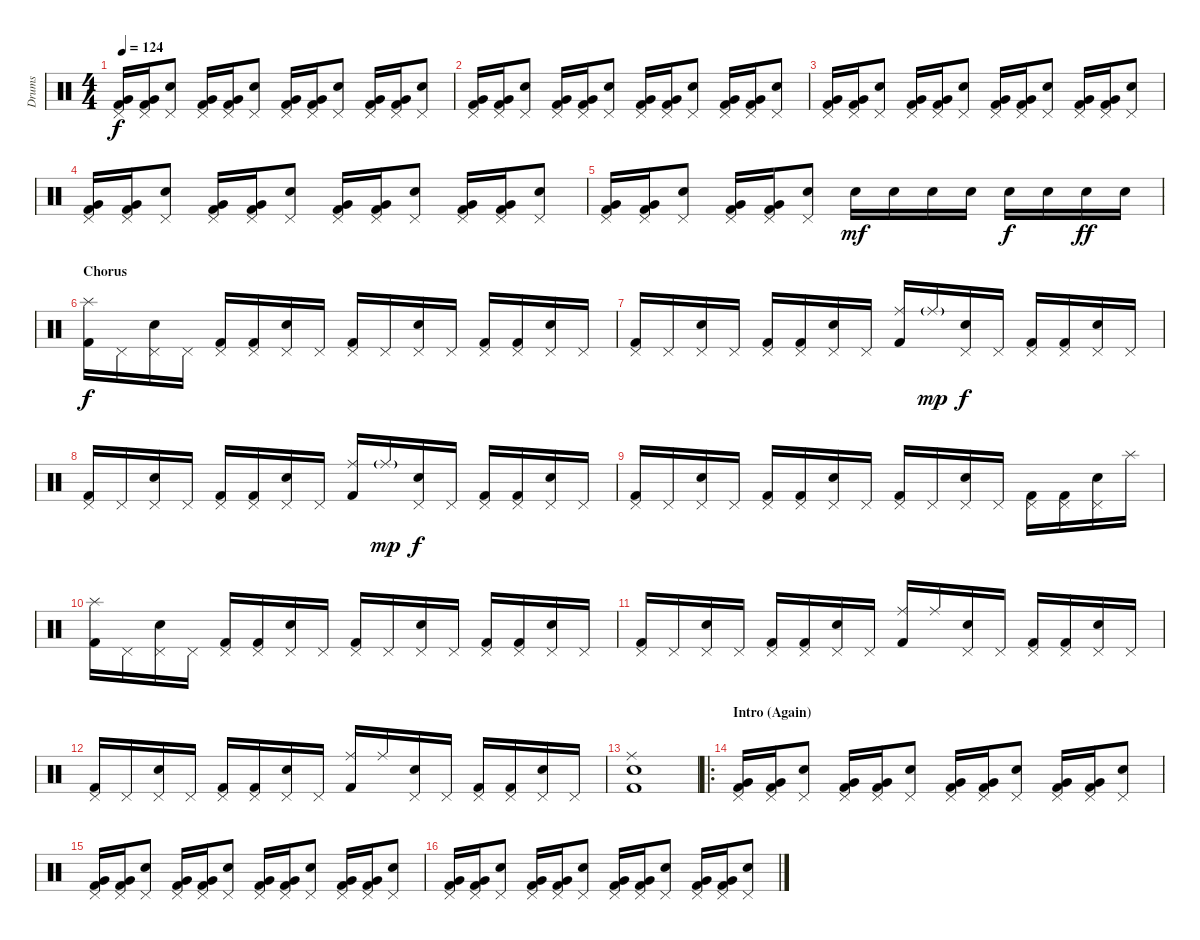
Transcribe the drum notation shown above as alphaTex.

\track ("Drums" "Drums") {instrument percussion}
\staff {score}
\articulation defaults
\ts (4 4)
\tempo 124
\clef neutral
\ks c
("Pedal Hi-Hat (hit)" "Very Low Tom (hit)" "Kick (hit) 2").16{dy f} ("Pedal Hi-Hat (hit)" "Very Low Tom (hit)" "Kick (hit) 2").16 ("Pedal Hi-Hat (hit)" "Electric Snare (hit)").8 ("Pedal Hi-Hat (hit)" "Very Low Tom (hit)" "Kick (hit) 2").16 ("Pedal Hi-Hat (hit)" "Very Low Tom (hit)" "Kick (hit) 2").16 ("Pedal Hi-Hat (hit)" "Electric Snare (hit)").8 ("Pedal Hi-Hat (hit)" "Very Low Tom (hit)" "Kick (hit) 2").16 ("Pedal Hi-Hat (hit)" "Very Low Tom (hit)" "Kick (hit) 2").16 ("Pedal Hi-Hat (hit)" "Electric Snare (hit)").8 ("Pedal Hi-Hat (hit)" "Very Low Tom (hit)" "Kick (hit) 2").16 ("Pedal Hi-Hat (hit)" "Very Low Tom (hit)" "Kick (hit) 2").16 ("Pedal Hi-Hat (hit)" "Electric Snare (hit)").8 |
("Pedal Hi-Hat (hit)" "Very Low Tom (hit)" "Kick (hit) 2").16 ("Pedal Hi-Hat (hit)" "Very Low Tom (hit)" "Kick (hit) 2").16 ("Pedal Hi-Hat (hit)" "Electric Snare (hit)").8 ("Pedal Hi-Hat (hit)" "Very Low Tom (hit)" "Kick (hit) 2").16 ("Pedal Hi-Hat (hit)" "Very Low Tom (hit)" "Kick (hit) 2").16 ("Pedal Hi-Hat (hit)" "Electric Snare (hit)").8 ("Pedal Hi-Hat (hit)" "Very Low Tom (hit)" "Kick (hit) 2").16 ("Pedal Hi-Hat (hit)" "Very Low Tom (hit)" "Kick (hit) 2").16 ("Pedal Hi-Hat (hit)" "Electric Snare (hit)").8 ("Pedal Hi-Hat (hit)" "Very Low Tom (hit)" "Kick (hit) 2").16 ("Pedal Hi-Hat (hit)" "Very Low Tom (hit)" "Kick (hit) 2").16 ("Pedal Hi-Hat (hit)" "Electric Snare (hit)").8 |
("Pedal Hi-Hat (hit)" "Very Low Tom (hit)" "Kick (hit) 2").16 ("Pedal Hi-Hat (hit)" "Very Low Tom (hit)" "Kick (hit) 2").16 ("Pedal Hi-Hat (hit)" "Electric Snare (hit)").8 ("Pedal Hi-Hat (hit)" "Very Low Tom (hit)" "Kick (hit) 2").16 ("Pedal Hi-Hat (hit)" "Very Low Tom (hit)" "Kick (hit) 2").16 ("Pedal Hi-Hat (hit)" "Electric Snare (hit)").8 ("Pedal Hi-Hat (hit)" "Very Low Tom (hit)" "Kick (hit) 2").16 ("Pedal Hi-Hat (hit)" "Very Low Tom (hit)" "Kick (hit) 2").16 ("Pedal Hi-Hat (hit)" "Electric Snare (hit)").8 ("Pedal Hi-Hat (hit)" "Very Low Tom (hit)" "Kick (hit) 2").16 ("Pedal Hi-Hat (hit)" "Very Low Tom (hit)" "Kick (hit) 2").16 ("Pedal Hi-Hat (hit)" "Electric Snare (hit)").8 |
("Pedal Hi-Hat (hit)" "Very Low Tom (hit)" "Kick (hit) 2").16 ("Pedal Hi-Hat (hit)" "Very Low Tom (hit)" "Kick (hit) 2").16 ("Pedal Hi-Hat (hit)" "Electric Snare (hit)").8 ("Pedal Hi-Hat (hit)" "Very Low Tom (hit)" "Kick (hit) 2").16 ("Pedal Hi-Hat (hit)" "Very Low Tom (hit)" "Kick (hit) 2").16 ("Pedal Hi-Hat (hit)" "Electric Snare (hit)").8 ("Pedal Hi-Hat (hit)" "Very Low Tom (hit)" "Kick (hit) 2").16 ("Pedal Hi-Hat (hit)" "Very Low Tom (hit)" "Kick (hit) 2").16 ("Pedal Hi-Hat (hit)" "Electric Snare (hit)").8 ("Pedal Hi-Hat (hit)" "Very Low Tom (hit)" "Kick (hit) 2").16 ("Pedal Hi-Hat (hit)" "Very Low Tom (hit)" "Kick (hit) 2").16 ("Pedal Hi-Hat (hit)" "Electric Snare (hit)").8 |
("Pedal Hi-Hat (hit)" "Very Low Tom (hit)" "Kick (hit) 2").16 ("Pedal Hi-Hat (hit)" "Very Low Tom (hit)" "Kick (hit) 2").16 ("Pedal Hi-Hat (hit)" "Electric Snare (hit)").8 ("Pedal Hi-Hat (hit)" "Very Low Tom (hit)" "Kick (hit) 2").16 ("Pedal Hi-Hat (hit)" "Very Low Tom (hit)" "Kick (hit) 2").16 ("Pedal Hi-Hat (hit)" "Electric Snare (hit)").8 "Electric Snare (hit)".16{dy mf} "Electric Snare (hit)".16 "Electric Snare (hit)".16 "Electric Snare (hit)".16 "Electric Snare (hit)".16{dy f} "Electric Snare (hit)".16 "Electric Snare (hit)".16{dy ff} "Electric Snare (hit)".16 |
\section ("" "Chorus")
("Splash (hit)" "Kick (hit) 2").16{dy f} "Pedal Hi-Hat (hit)".16 ("Pedal Hi-Hat (hit)" "Electric Snare (hit)").16 "Pedal Hi-Hat (hit)".16 ("Pedal Hi-Hat (hit)" "Kick (hit) 2").16 ("Pedal Hi-Hat (hit)" "Kick (hit) 2").16 ("Pedal Hi-Hat (hit)" "Electric Snare (hit)").16 "Pedal Hi-Hat (hit)".16 ("Pedal Hi-Hat (hit)" "Kick (hit) 2").16 "Pedal Hi-Hat (hit)".16 ("Pedal Hi-Hat (hit)" "Electric Snare (hit)").16 "Pedal Hi-Hat (hit)".16 ("Pedal Hi-Hat (hit)" "Kick (hit) 2").16 ("Pedal Hi-Hat (hit)" "Kick (hit) 2").16 ("Pedal Hi-Hat (hit)" "Electric Snare (hit)").16 "Pedal Hi-Hat (hit)".16 |
("Pedal Hi-Hat (hit)" "Kick (hit) 2").16 "Pedal Hi-Hat (hit)".16 ("Pedal Hi-Hat (hit)" "Electric Snare (hit)").16 "Pedal Hi-Hat (hit)".16 ("Pedal Hi-Hat (hit)" "Kick (hit) 2").16 ("Pedal Hi-Hat (hit)" "Kick (hit) 2").16 ("Pedal Hi-Hat (hit)" "Electric Snare (hit)").16 "Pedal Hi-Hat (hit)".16 ("Ride (middle)" "Kick (hit) 2").16 "Ride (middle)"{g}.16{dy mp} ("Pedal Hi-Hat (hit)" "Electric Snare (hit)").16{dy f} "Pedal Hi-Hat (hit)".16 ("Pedal Hi-Hat (hit)" "Kick (hit) 2").16 ("Pedal Hi-Hat (hit)" "Kick (hit) 2").16 ("Pedal Hi-Hat (hit)" "Electric Snare (hit)").16 "Pedal Hi-Hat (hit)".16 |
("Pedal Hi-Hat (hit)" "Kick (hit) 2").16 "Pedal Hi-Hat (hit)".16 ("Pedal Hi-Hat (hit)" "Electric Snare (hit)").16 "Pedal Hi-Hat (hit)".16 ("Pedal Hi-Hat (hit)" "Kick (hit) 2").16 ("Pedal Hi-Hat (hit)" "Kick (hit) 2").16 ("Pedal Hi-Hat (hit)" "Electric Snare (hit)").16 "Pedal Hi-Hat (hit)".16 ("Ride (middle)" "Kick (hit) 2").16 "Ride (middle)"{g}.16{dy mp} ("Pedal Hi-Hat (hit)" "Electric Snare (hit)").16{dy f} "Pedal Hi-Hat (hit)".16 ("Pedal Hi-Hat (hit)" "Kick (hit) 2").16 ("Pedal Hi-Hat (hit)" "Kick (hit) 2").16 ("Pedal Hi-Hat (hit)" "Electric Snare (hit)").16 "Pedal Hi-Hat (hit)".16 |
("Pedal Hi-Hat (hit)" "Kick (hit) 2").16 "Pedal Hi-Hat (hit)".16 ("Pedal Hi-Hat (hit)" "Electric Snare (hit)").16 "Pedal Hi-Hat (hit)".16 ("Pedal Hi-Hat (hit)" "Kick (hit) 2").16 ("Pedal Hi-Hat (hit)" "Kick (hit) 2").16 ("Pedal Hi-Hat (hit)" "Electric Snare (hit)").16 "Pedal Hi-Hat (hit)".16 ("Pedal Hi-Hat (hit)" "Kick (hit) 2").16 "Pedal Hi-Hat (hit)".16 ("Pedal Hi-Hat (hit)" "Electric Snare (hit)").16 "Pedal Hi-Hat (hit)".16 ("Pedal Hi-Hat (hit)" "Kick (hit) 2").16 ("Pedal Hi-Hat (hit)" "Kick (hit) 2").16 ("Pedal Hi-Hat (hit)" "Electric Snare (hit)").16 "Splash (hit)".16 |
("Splash (hit)" "Kick (hit) 2").16 "Pedal Hi-Hat (hit)".16 ("Pedal Hi-Hat (hit)" "Electric Snare (hit)").16 "Pedal Hi-Hat (hit)".16 ("Pedal Hi-Hat (hit)" "Kick (hit) 2").16 ("Pedal Hi-Hat (hit)" "Kick (hit) 2").16 ("Pedal Hi-Hat (hit)" "Electric Snare (hit)").16 "Pedal Hi-Hat (hit)".16 ("Pedal Hi-Hat (hit)" "Kick (hit) 2").16 "Pedal Hi-Hat (hit)".16 ("Pedal Hi-Hat (hit)" "Electric Snare (hit)").16 "Pedal Hi-Hat (hit)".16 ("Pedal Hi-Hat (hit)" "Kick (hit) 2").16 ("Pedal Hi-Hat (hit)" "Kick (hit) 2").16 ("Pedal Hi-Hat (hit)" "Electric Snare (hit)").16 "Pedal Hi-Hat (hit)".16 |
("Pedal Hi-Hat (hit)" "Kick (hit) 2").16 "Pedal Hi-Hat (hit)".16 ("Pedal Hi-Hat (hit)" "Electric Snare (hit)").16 "Pedal Hi-Hat (hit)".16 ("Pedal Hi-Hat (hit)" "Kick (hit) 2").16 ("Pedal Hi-Hat (hit)" "Kick (hit) 2").16 ("Pedal Hi-Hat (hit)" "Electric Snare (hit)").16 "Pedal Hi-Hat (hit)".16 ("Ride (middle)" "Kick (hit) 2").16 "Ride (middle)".16 ("Pedal Hi-Hat (hit)" "Electric Snare (hit)").16 "Pedal Hi-Hat (hit)".16 ("Pedal Hi-Hat (hit)" "Kick (hit) 2").16 ("Pedal Hi-Hat (hit)" "Kick (hit) 2").16 ("Pedal Hi-Hat (hit)" "Electric Snare (hit)").16 "Pedal Hi-Hat (hit)".16 |
("Pedal Hi-Hat (hit)" "Kick (hit) 2").16 "Pedal Hi-Hat (hit)".16 ("Pedal Hi-Hat (hit)" "Electric Snare (hit)").16 "Pedal Hi-Hat (hit)".16 ("Pedal Hi-Hat (hit)" "Kick (hit) 2").16 ("Pedal Hi-Hat (hit)" "Kick (hit) 2").16 ("Pedal Hi-Hat (hit)" "Electric Snare (hit)").16 "Pedal Hi-Hat (hit)".16 ("Ride (middle)" "Kick (hit) 2").16 "Ride (middle)".16 ("Pedal Hi-Hat (hit)" "Electric Snare (hit)").16 "Pedal Hi-Hat (hit)".16 ("Pedal Hi-Hat (hit)" "Kick (hit) 2").16 ("Pedal Hi-Hat (hit)" "Kick (hit) 2").16 ("Pedal Hi-Hat (hit)" "Electric Snare (hit)").16 "Pedal Hi-Hat (hit)".16 |
("Ride (middle)" "Electric Snare (hit)" "Kick (hit) 2").1 |
\ro
\section ("" "Intro (Again)")
("Pedal Hi-Hat (hit)" "Very Low Tom (hit)" "Kick (hit) 2").16 ("Pedal Hi-Hat (hit)" "Very Low Tom (hit)" "Kick (hit) 2").16 ("Pedal Hi-Hat (hit)" "Electric Snare (hit)").8 ("Pedal Hi-Hat (hit)" "Very Low Tom (hit)" "Kick (hit) 2").16 ("Pedal Hi-Hat (hit)" "Very Low Tom (hit)" "Kick (hit) 2").16 ("Pedal Hi-Hat (hit)" "Electric Snare (hit)").8 ("Pedal Hi-Hat (hit)" "Very Low Tom (hit)" "Kick (hit) 2").16 ("Pedal Hi-Hat (hit)" "Very Low Tom (hit)" "Kick (hit) 2").16 ("Pedal Hi-Hat (hit)" "Electric Snare (hit)").8 ("Pedal Hi-Hat (hit)" "Very Low Tom (hit)" "Kick (hit) 2").16 ("Pedal Hi-Hat (hit)" "Very Low Tom (hit)" "Kick (hit) 2").16 ("Pedal Hi-Hat (hit)" "Electric Snare (hit)").8 |
("Pedal Hi-Hat (hit)" "Very Low Tom (hit)" "Kick (hit) 2").16 ("Pedal Hi-Hat (hit)" "Very Low Tom (hit)" "Kick (hit) 2").16 ("Pedal Hi-Hat (hit)" "Electric Snare (hit)").8 ("Pedal Hi-Hat (hit)" "Very Low Tom (hit)" "Kick (hit) 2").16 ("Pedal Hi-Hat (hit)" "Very Low Tom (hit)" "Kick (hit) 2").16 ("Pedal Hi-Hat (hit)" "Electric Snare (hit)").8 ("Pedal Hi-Hat (hit)" "Very Low Tom (hit)" "Kick (hit) 2").16 ("Pedal Hi-Hat (hit)" "Very Low Tom (hit)" "Kick (hit) 2").16 ("Pedal Hi-Hat (hit)" "Electric Snare (hit)").8 ("Pedal Hi-Hat (hit)" "Very Low Tom (hit)" "Kick (hit) 2").16 ("Pedal Hi-Hat (hit)" "Very Low Tom (hit)" "Kick (hit) 2").16 ("Pedal Hi-Hat (hit)" "Electric Snare (hit)").8 |
("Pedal Hi-Hat (hit)" "Very Low Tom (hit)" "Kick (hit) 2").16 ("Pedal Hi-Hat (hit)" "Very Low Tom (hit)" "Kick (hit) 2").16 ("Pedal Hi-Hat (hit)" "Electric Snare (hit)").8 ("Pedal Hi-Hat (hit)" "Very Low Tom (hit)" "Kick (hit) 2").16 ("Pedal Hi-Hat (hit)" "Very Low Tom (hit)" "Kick (hit) 2").16 ("Pedal Hi-Hat (hit)" "Electric Snare (hit)").8 ("Pedal Hi-Hat (hit)" "Very Low Tom (hit)" "Kick (hit) 2").16 ("Pedal Hi-Hat (hit)" "Very Low Tom (hit)" "Kick (hit) 2").16 ("Pedal Hi-Hat (hit)" "Electric Snare (hit)").8 ("Pedal Hi-Hat (hit)" "Very Low Tom (hit)" "Kick (hit) 2").16 ("Pedal Hi-Hat (hit)" "Very Low Tom (hit)" "Kick (hit) 2").16 ("Pedal Hi-Hat (hit)" "Electric Snare (hit)").8
